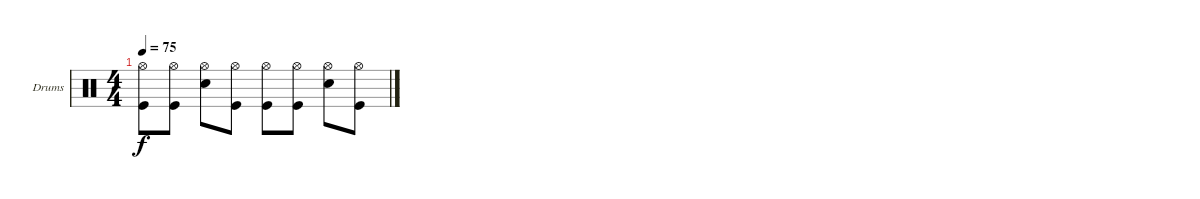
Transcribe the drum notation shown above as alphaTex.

\defaultSystemsLayout 4
\bracketExtendMode groupsimilarinstruments
\firstSystemTrackNameOrientation horizontal
\otherSystemsTrackNameOrientation horizontal
\track ("Drumkit" "Drums") {solo instrument percussion}
\staff {score}
\articulation defaults
\ts (4 4)
\tempo 75
\clef neutral
\ks c
("Hi-Hat (open)" "Kick (hit)").8{dy f} ("Hi-Hat (open)" "Kick (hit)").8 ("Hi-Hat (open)" "Snare (hit) 2").8 ("Hi-Hat (open)" "Kick (hit)").8 ("Hi-Hat (open)" "Kick (hit)").8 ("Hi-Hat (open)" "Kick (hit)").8 ("Hi-Hat (open)" "Snare (hit) 2").8 ("Hi-Hat (open)" "Kick (hit)").8
